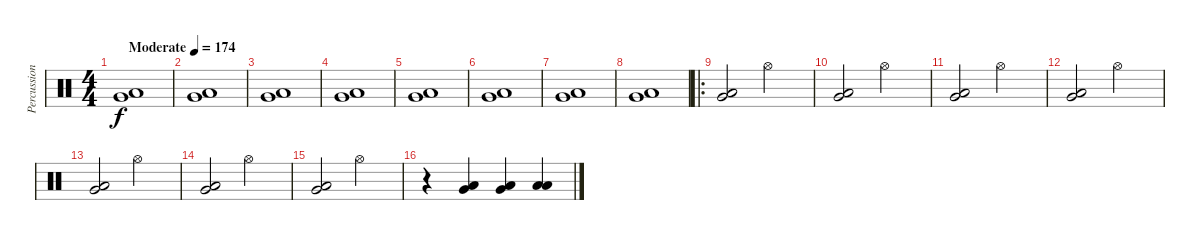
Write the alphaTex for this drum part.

\track ("Percussion" "Percussion") {instrument percussion}
\staff {score}
\articulation defaults
\ts (4 4)
\tempo (174 "Moderate")
\clef neutral
\ks c
("Low Floor Tom (hit)" "Very Low Tom (hit)").1{dy f} |
("Low Floor Tom (hit)" "Very Low Tom (hit)").1 |
("Low Floor Tom (hit)" "Very Low Tom (hit)").1 |
("Low Floor Tom (hit)" "Very Low Tom (hit)").1 |
("Low Floor Tom (hit)" "Very Low Tom (hit)").1 |
("Low Floor Tom (hit)" "Very Low Tom (hit)").1 |
("Low Floor Tom (hit)" "Very Low Tom (hit)").1 |
("Low Floor Tom (hit)" "Very Low Tom (hit)").1 |
\ro
("Low Floor Tom (hit)" "Very Low Tom (hit)").2 "Hi-Hat (open)".2 |
("Low Floor Tom (hit)" "Very Low Tom (hit)").2 "Hi-Hat (open)".2 |
("Low Floor Tom (hit)" "Very Low Tom (hit)").2 "Hi-Hat (open)".2 |
("Low Floor Tom (hit)" "Very Low Tom (hit)").2 "Hi-Hat (open)".2 |
("Low Floor Tom (hit)" "Very Low Tom (hit)").2 "Hi-Hat (open)".2 |
("Low Floor Tom (hit)" "Very Low Tom (hit)").2 "Hi-Hat (open)".2 |
("Low Floor Tom (hit)" "Very Low Tom (hit)").2 "Hi-Hat (open)".2 |
r.4 ("Low Floor Tom (hit)" "Very Low Tom (hit)").4 ("Low Floor Tom (hit)" "Very Low Tom (hit)").4 ("Low Floor Tom (hit)" "Low Floor Tom (hit)").4
